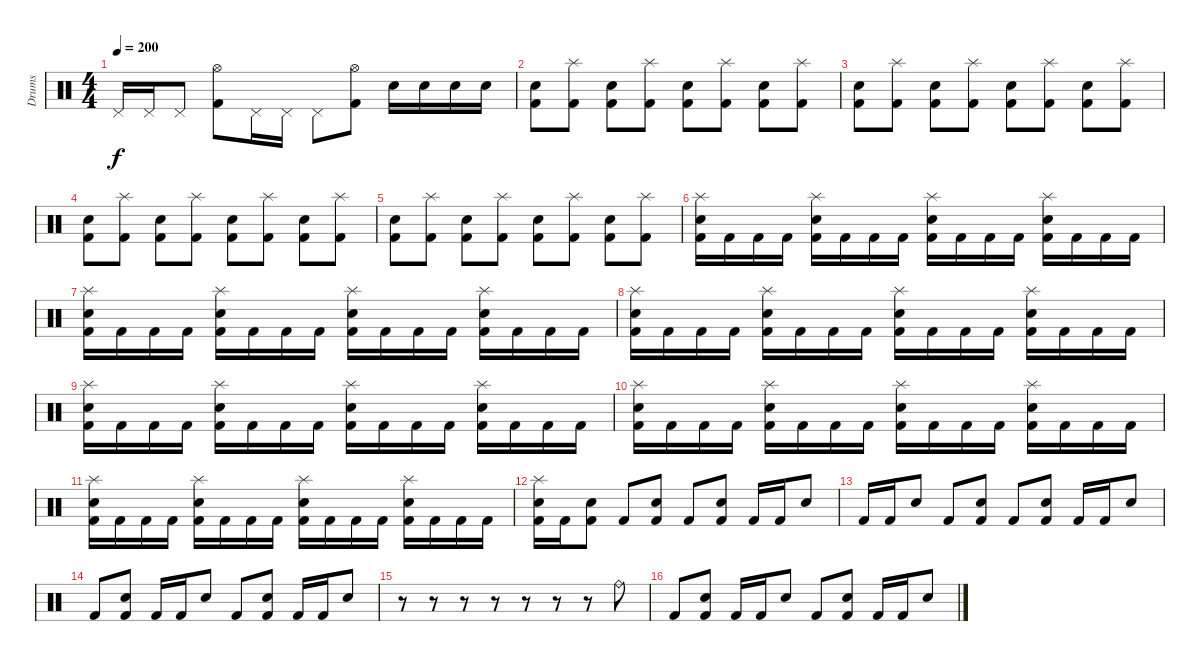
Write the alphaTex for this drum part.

\track ("Drums" "Drums") {instrument percussion}
\staff {score}
\articulation defaults
\ts (4 4)
\tempo 200
\clef neutral
\ks c "Pedal Hi-Hat (hit)".16{dy f} "Pedal Hi-Hat (hit)".16 "Pedal Hi-Hat (hit)".8
("Hi-Hat (open)" "Kick (hit) 2").8 "Pedal Hi-Hat (hit)".16 "Pedal Hi-Hat (hit)".16 "Pedal Hi-Hat (hit)".8 ("Hi-Hat (open)" "Kick (hit) 2").8 "Snare (hit) 2".16 "Snare (hit) 2".16 "Snare (hit) 2".16 "Snare (hit) 2".16 |
("Snare (hit) 2" "Kick (hit) 2").8 ("Splash (hit)" "Kick (hit) 2").8 ("Snare (hit) 2" "Kick (hit) 2").8 ("Splash (hit)" "Kick (hit) 2").8 ("Snare (hit) 2" "Kick (hit) 2").8 ("Splash (hit)" "Kick (hit) 2").8 ("Snare (hit) 2" "Kick (hit) 2").8 ("Splash (hit)" "Kick (hit) 2").8 |
("Snare (hit) 2" "Kick (hit) 2").8 ("Splash (hit)" "Kick (hit) 2").8 ("Snare (hit) 2" "Kick (hit) 2").8 ("Splash (hit)" "Kick (hit) 2").8 ("Snare (hit) 2" "Kick (hit) 2").8 ("Splash (hit)" "Kick (hit) 2").8 ("Snare (hit) 2" "Kick (hit) 2").8 ("Splash (hit)" "Kick (hit) 2").8 |
("Snare (hit) 2" "Kick (hit) 2").8 ("Splash (hit)" "Kick (hit) 2").8 ("Snare (hit) 2" "Kick (hit) 2").8 ("Splash (hit)" "Kick (hit) 2").8 ("Snare (hit) 2" "Kick (hit) 2").8 ("Splash (hit)" "Kick (hit) 2").8 ("Snare (hit) 2" "Kick (hit) 2").8 ("Splash (hit)" "Kick (hit) 2").8 |
("Snare (hit) 2" "Kick (hit) 2").8 ("Splash (hit)" "Kick (hit) 2").8 ("Snare (hit) 2" "Kick (hit) 2").8 ("Splash (hit)" "Kick (hit) 2").8 ("Snare (hit) 2" "Kick (hit) 2").8 ("Splash (hit)" "Kick (hit) 2").8 ("Snare (hit) 2" "Kick (hit) 2").8 ("Splash (hit)" "Kick (hit) 2").8 |
("Splash (hit)" "Snare (hit) 2" "Kick (hit) 2").16 "Kick (hit) 2".16 "Kick (hit) 2".16 "Kick (hit) 2".16 ("Splash (hit)" "Snare (hit) 2" "Kick (hit) 2").16 "Kick (hit) 2".16 "Kick (hit) 2".16 "Kick (hit) 2".16 ("Splash (hit)" "Snare (hit) 2" "Kick (hit) 2").16 "Kick (hit) 2".16 "Kick (hit) 2".16 "Kick (hit) 2".16 ("Splash (hit)" "Snare (hit) 2" "Kick (hit) 2").16 "Kick (hit) 2".16 "Kick (hit) 2".16 "Kick (hit) 2".16 |
("Splash (hit)" "Snare (hit) 2" "Kick (hit) 2").16 "Kick (hit) 2".16 "Kick (hit) 2".16 "Kick (hit) 2".16 ("Splash (hit)" "Snare (hit) 2" "Kick (hit) 2").16 "Kick (hit) 2".16 "Kick (hit) 2".16 "Kick (hit) 2".16 ("Splash (hit)" "Snare (hit) 2" "Kick (hit) 2").16 "Kick (hit) 2".16 "Kick (hit) 2".16 "Kick (hit) 2".16 ("Splash (hit)" "Snare (hit) 2" "Kick (hit) 2").16 "Kick (hit) 2".16 "Kick (hit) 2".16 "Kick (hit) 2".16 |
("Splash (hit)" "Snare (hit) 2" "Kick (hit) 2").16 "Kick (hit) 2".16 "Kick (hit) 2".16 "Kick (hit) 2".16 ("Splash (hit)" "Snare (hit) 2" "Kick (hit) 2").16 "Kick (hit) 2".16 "Kick (hit) 2".16 "Kick (hit) 2".16 ("Splash (hit)" "Snare (hit) 2" "Kick (hit) 2").16 "Kick (hit) 2".16 "Kick (hit) 2".16 "Kick (hit) 2".16 ("Splash (hit)" "Snare (hit) 2" "Kick (hit) 2").16 "Kick (hit) 2".16 "Kick (hit) 2".16 "Kick (hit) 2".16 |
("Splash (hit)" "Snare (hit) 2" "Kick (hit) 2").16 "Kick (hit) 2".16 "Kick (hit) 2".16 "Kick (hit) 2".16 ("Splash (hit)" "Snare (hit) 2" "Kick (hit) 2").16 "Kick (hit) 2".16 "Kick (hit) 2".16 "Kick (hit) 2".16 ("Splash (hit)" "Snare (hit) 2" "Kick (hit) 2").16 "Kick (hit) 2".16 "Kick (hit) 2".16 "Kick (hit) 2".16 ("Splash (hit)" "Snare (hit) 2" "Kick (hit) 2").16 "Kick (hit) 2".16 "Kick (hit) 2".16 "Kick (hit) 2".16 |
("Splash (hit)" "Snare (hit) 2" "Kick (hit) 2").16 "Kick (hit) 2".16 "Kick (hit) 2".16 "Kick (hit) 2".16 ("Splash (hit)" "Snare (hit) 2" "Kick (hit) 2").16 "Kick (hit) 2".16 "Kick (hit) 2".16 "Kick (hit) 2".16 ("Splash (hit)" "Snare (hit) 2" "Kick (hit) 2").16 "Kick (hit) 2".16 "Kick (hit) 2".16 "Kick (hit) 2".16 ("Splash (hit)" "Snare (hit) 2" "Kick (hit) 2").16 "Kick (hit) 2".16 "Kick (hit) 2".16 "Kick (hit) 2".16 |
("Splash (hit)" "Snare (hit) 2" "Kick (hit) 2").16 "Kick (hit) 2".16 "Kick (hit) 2".16 "Kick (hit) 2".16 ("Splash (hit)" "Snare (hit) 2" "Kick (hit) 2").16 "Kick (hit) 2".16 "Kick (hit) 2".16 "Kick (hit) 2".16 ("Splash (hit)" "Snare (hit) 2" "Kick (hit) 2").16 "Kick (hit) 2".16 "Kick (hit) 2".16 "Kick (hit) 2".16 ("Splash (hit)" "Snare (hit) 2" "Kick (hit) 2").16 "Kick (hit) 2".16 "Kick (hit) 2".16 "Kick (hit) 2".16 |
("Splash (hit)" "Snare (hit) 2" "Kick (hit) 2").16 "Kick (hit) 2".16 ("Snare (hit) 2" "Kick (hit) 2").8 "Kick (hit) 2".8 ("Snare (hit) 2" "Kick (hit) 2").8 "Kick (hit) 2".8 ("Snare (hit) 2" "Kick (hit) 2").8 "Kick (hit) 2".16 "Kick (hit) 2".16 "Snare (hit) 2".8 |
"Kick (hit) 2".16 "Kick (hit) 2".16 "Snare (hit) 2".8 "Kick (hit) 2".8 ("Snare (hit) 2" "Kick (hit) 2").8 "Kick (hit) 2".8 ("Snare (hit) 2" "Kick (hit) 2").8 "Kick (hit) 2".16 "Kick (hit) 2".16 "Snare (hit) 2".8 |
"Kick (hit) 2".8 ("Snare (hit) 2" "Kick (hit) 2").8 "Kick (hit) 2".16 "Kick (hit) 2".16 "Snare (hit) 2".8 "Kick (hit) 2".8 ("Snare (hit) 2" "Kick (hit) 2").8 "Kick (hit) 2".16 "Kick (hit) 2".16 "Snare (hit) 2".8 |
r.8 r.8 r.8 r.8 r.8 r.8 r.8 "Ride (bell)".8 |
"Kick (hit) 2".8 ("Snare (hit) 2" "Kick (hit) 2").8 "Kick (hit) 2".16 "Kick (hit) 2".16 "Snare (hit) 2".8 "Kick (hit) 2".8 ("Snare (hit) 2" "Kick (hit) 2").8 "Kick (hit) 2".16 "Kick (hit) 2".16 "Snare (hit) 2".8
